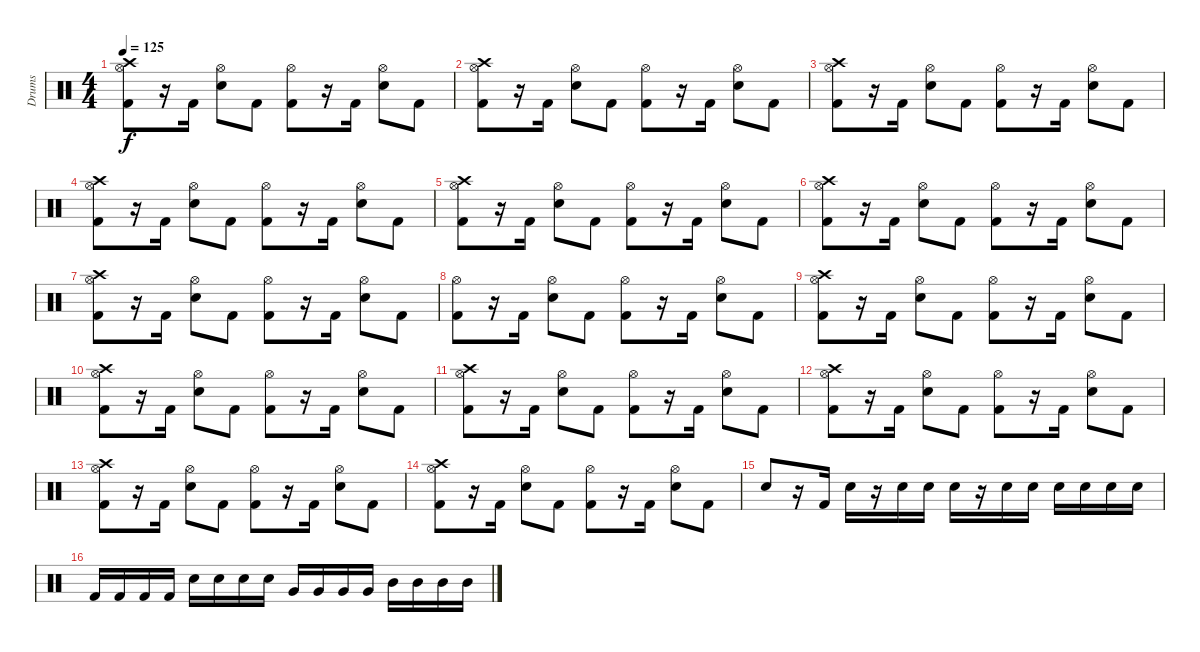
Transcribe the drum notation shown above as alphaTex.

\track ("Drums" "Drums") {instrument percussion}
\staff {score}
\articulation defaults
\ts (4 4)
\tempo 125
\clef neutral
\ks c
("Hi-Hat (open)" "Kick (hit) 2" "Crash high (hit)").8{dy f} r.16 "Kick (hit) 2".16 ("Hi-Hat (open)" "Snare (hit) 2").8 "Kick (hit) 2".8 ("Hi-Hat (open)" "Kick (hit) 2").8 r.16 "Kick (hit) 2".16 ("Hi-Hat (open)" "Snare (hit) 2").8 "Kick (hit) 2".8 |
("Hi-Hat (open)" "Kick (hit) 2" "Crash high (hit)").8 r.16 "Kick (hit) 2".16 ("Hi-Hat (open)" "Snare (hit) 2").8 "Kick (hit) 2".8 ("Hi-Hat (open)" "Kick (hit) 2").8 r.16 "Kick (hit) 2".16 ("Hi-Hat (open)" "Snare (hit) 2").8 "Kick (hit) 2".8 |
("Hi-Hat (open)" "Kick (hit) 2" "Crash high (hit)").8 r.16 "Kick (hit) 2".16 ("Hi-Hat (open)" "Snare (hit) 2").8 "Kick (hit) 2".8 ("Hi-Hat (open)" "Kick (hit) 2").8 r.16 "Kick (hit) 2".16 ("Hi-Hat (open)" "Snare (hit) 2").8 "Kick (hit) 2".8 |
("Hi-Hat (open)" "Kick (hit) 2" "Crash high (hit)").8 r.16 "Kick (hit) 2".16 ("Hi-Hat (open)" "Snare (hit) 2").8 "Kick (hit) 2".8 ("Hi-Hat (open)" "Kick (hit) 2").8 r.16 "Kick (hit) 2".16 ("Hi-Hat (open)" "Snare (hit) 2").8 "Kick (hit) 2".8 |
("Hi-Hat (open)" "Kick (hit) 2" "Crash high (hit)").8 r.16 "Kick (hit) 2".16 ("Hi-Hat (open)" "Snare (hit) 2").8 "Kick (hit) 2".8 ("Hi-Hat (open)" "Kick (hit) 2").8 r.16 "Kick (hit) 2".16 ("Hi-Hat (open)" "Snare (hit) 2").8 "Kick (hit) 2".8 |
("Hi-Hat (open)" "Kick (hit) 2" "Crash high (hit)").8 r.16 "Kick (hit) 2".16 ("Hi-Hat (open)" "Snare (hit) 2").8 "Kick (hit) 2".8 ("Hi-Hat (open)" "Kick (hit) 2").8 r.16 "Kick (hit) 2".16 ("Hi-Hat (open)" "Snare (hit) 2").8 "Kick (hit) 2".8 |
("Hi-Hat (open)" "Kick (hit) 2" "Crash high (hit)").8 r.16 "Kick (hit) 2".16 ("Hi-Hat (open)" "Snare (hit) 2").8 "Kick (hit) 2".8 ("Hi-Hat (open)" "Kick (hit) 2").8 r.16 "Kick (hit) 2".16 ("Hi-Hat (open)" "Snare (hit) 2").8 "Kick (hit) 2".8 |
("Hi-Hat (open)" "Kick (hit) 2").8 r.16 "Kick (hit) 2".16 ("Hi-Hat (open)" "Snare (hit) 2").8 "Kick (hit) 2".8 ("Hi-Hat (open)" "Kick (hit) 2").8 r.16 "Kick (hit) 2".16 ("Hi-Hat (open)" "Snare (hit) 2").8 "Kick (hit) 2".8 |
("Hi-Hat (open)" "Kick (hit) 2" "Crash high (hit)").8 r.16 "Kick (hit) 2".16 ("Hi-Hat (open)" "Snare (hit) 2").8 "Kick (hit) 2".8 ("Hi-Hat (open)" "Kick (hit) 2").8 r.16 "Kick (hit) 2".16 ("Hi-Hat (open)" "Snare (hit) 2").8 "Kick (hit) 2".8 |
("Hi-Hat (open)" "Kick (hit) 2" "Crash high (hit)").8 r.16 "Kick (hit) 2".16 ("Hi-Hat (open)" "Snare (hit) 2").8 "Kick (hit) 2".8 ("Hi-Hat (open)" "Kick (hit) 2").8 r.16 "Kick (hit) 2".16 ("Hi-Hat (open)" "Snare (hit) 2").8 "Kick (hit) 2".8 |
("Hi-Hat (open)" "Kick (hit) 2" "Crash high (hit)").8 r.16 "Kick (hit) 2".16 ("Hi-Hat (open)" "Snare (hit) 2").8 "Kick (hit) 2".8 ("Hi-Hat (open)" "Kick (hit) 2").8 r.16 "Kick (hit) 2".16 ("Hi-Hat (open)" "Snare (hit) 2").8 "Kick (hit) 2".8 |
("Hi-Hat (open)" "Kick (hit) 2" "Crash high (hit)").8 r.16 "Kick (hit) 2".16 ("Hi-Hat (open)" "Snare (hit) 2").8 "Kick (hit) 2".8 ("Hi-Hat (open)" "Kick (hit) 2").8 r.16 "Kick (hit) 2".16 ("Hi-Hat (open)" "Snare (hit) 2").8 "Kick (hit) 2".8 |
("Hi-Hat (open)" "Kick (hit) 2" "Crash high (hit)").8 r.16 "Kick (hit) 2".16 ("Hi-Hat (open)" "Snare (hit) 2").8 "Kick (hit) 2".8 ("Hi-Hat (open)" "Kick (hit) 2").8 r.16 "Kick (hit) 2".16 ("Hi-Hat (open)" "Snare (hit) 2").8 "Kick (hit) 2".8 |
("Hi-Hat (open)" "Kick (hit) 2" "Crash high (hit)").8 r.16 "Kick (hit) 2".16 ("Hi-Hat (open)" "Snare (hit) 2").8 "Kick (hit) 2".8 ("Hi-Hat (open)" "Kick (hit) 2").8 r.16 "Kick (hit) 2".16 ("Hi-Hat (open)" "Snare (hit) 2").8 "Kick (hit) 2".8 |
"Snare (hit) 2".8 r.16 "Kick (hit) 2".16 "Snare (hit) 2".16 r.16 "Snare (hit) 2".16 "Snare (hit) 2".16 "Snare (hit) 2".16 r.16 "Snare (hit) 2".16 "Snare (hit) 2".16 "Snare (hit) 2".16 "Snare (hit) 2".16 "Snare (hit) 2".16 "Snare (hit) 2".16 |
"Kick (hit) 2".16 "Kick (hit) 2".16 "Kick (hit) 2".16 "Kick (hit) 2".16 "Snare (hit) 2".16 "Snare (hit) 2".16 "Snare (hit) 2".16 "Snare (hit) 2".16 "Very Low Tom (hit)".16 "Very Low Tom (hit)".16 "Very Low Tom (hit)".16 "Very Low Tom (hit)".16 "Mid Tom (hit)".16 "Mid Tom (hit)".16 "Mid Tom (hit)".16 "Mid Tom (hit)".16
